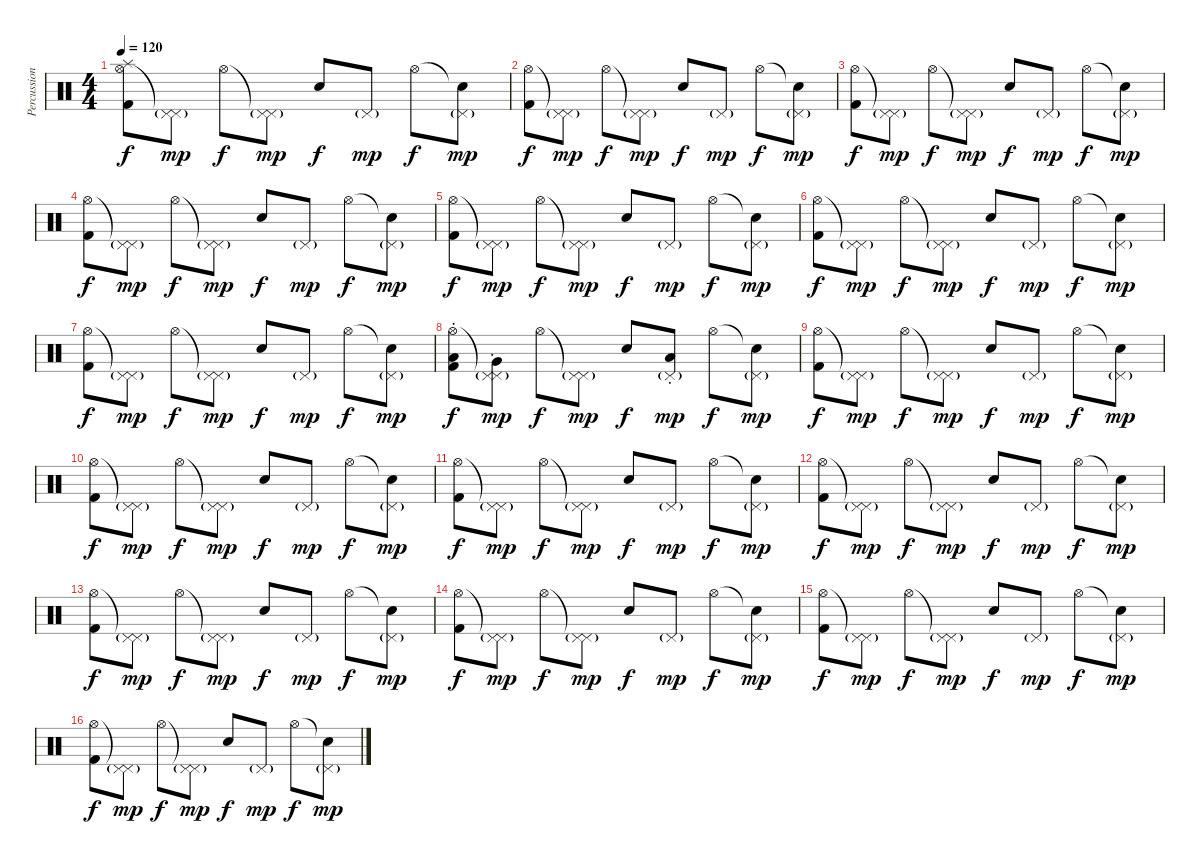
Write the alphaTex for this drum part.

\track ("Percussion" "Percussion") {instrument percussion}
\staff {score}
\articulation defaults
\ts (4 4)
\tempo 120
\clef neutral
\ks c
("Hi-Hat (open)" "Splash (hit)" "Kick (hit) 2").8{dy f} ("Pedal Hi-Hat (hit)"{t} "Pedal Hi-Hat (hit)"{g}).8{dy mp} "Hi-Hat (open)".8{dy f} ("Pedal Hi-Hat (hit)"{t} "Pedal Hi-Hat (hit)"{g}).8{dy mp} "Snare (hit) 2".8{dy f} "Pedal Hi-Hat (hit)"{g}.8{dy mp} "Hi-Hat (open)".8{dy f} ("Snare (hit)"{t} "Pedal Hi-Hat (hit)"{g}).8{dy mp} |
("Hi-Hat (open)" "Kick (hit) 2").8{dy f} ("Pedal Hi-Hat (hit)"{t} "Pedal Hi-Hat (hit)"{g}).8{dy mp} "Hi-Hat (open)".8{dy f} ("Pedal Hi-Hat (hit)"{t} "Pedal Hi-Hat (hit)"{g}).8{dy mp} "Snare (hit) 2".8{dy f} "Pedal Hi-Hat (hit)"{g}.8{dy mp} "Hi-Hat (open)".8{dy f} ("Snare (hit)"{t} "Pedal Hi-Hat (hit)"{g}).8{dy mp} |
("Hi-Hat (open)" "Kick (hit) 2").8{dy f} ("Pedal Hi-Hat (hit)"{t} "Pedal Hi-Hat (hit)"{g}).8{dy mp} "Hi-Hat (open)".8{dy f} ("Pedal Hi-Hat (hit)"{t} "Pedal Hi-Hat (hit)"{g}).8{dy mp} "Snare (hit) 2".8{dy f} "Pedal Hi-Hat (hit)"{g}.8{dy mp} "Hi-Hat (open)".8{dy f} ("Snare (hit)"{t} "Pedal Hi-Hat (hit)"{g}).8{dy mp} |
("Hi-Hat (open)" "Kick (hit) 2").8{dy f} ("Pedal Hi-Hat (hit)"{t} "Pedal Hi-Hat (hit)"{g}).8{dy mp} "Hi-Hat (open)".8{dy f} ("Pedal Hi-Hat (hit)"{t} "Pedal Hi-Hat (hit)"{g}).8{dy mp} "Snare (hit) 2".8{dy f} "Pedal Hi-Hat (hit)"{g}.8{dy mp} "Hi-Hat (open)".8{dy f} ("Snare (hit)"{t} "Pedal Hi-Hat (hit)"{g}).8{dy mp} |
("Hi-Hat (open)" "Kick (hit) 2").8{dy f} ("Pedal Hi-Hat (hit)"{t} "Pedal Hi-Hat (hit)"{g}).8{dy mp} "Hi-Hat (open)".8{dy f} ("Pedal Hi-Hat (hit)"{t} "Pedal Hi-Hat (hit)"{g}).8{dy mp} "Snare (hit) 2".8{dy f} "Pedal Hi-Hat (hit)"{g}.8{dy mp} "Hi-Hat (open)".8{dy f} ("Snare (hit)"{t} "Pedal Hi-Hat (hit)"{g}).8{dy mp} |
("Hi-Hat (open)" "Kick (hit) 2").8{dy f} ("Pedal Hi-Hat (hit)"{t} "Pedal Hi-Hat (hit)"{g}).8{dy mp} "Hi-Hat (open)".8{dy f} ("Pedal Hi-Hat (hit)"{t} "Pedal Hi-Hat (hit)"{g}).8{dy mp} "Snare (hit) 2".8{dy f} "Pedal Hi-Hat (hit)"{g}.8{dy mp} "Hi-Hat (open)".8{dy f} ("Snare (hit)"{t} "Pedal Hi-Hat (hit)"{g}).8{dy mp} |
("Hi-Hat (open)" "Kick (hit) 2").8{dy f} ("Pedal Hi-Hat (hit)"{t} "Pedal Hi-Hat (hit)"{g}).8{dy mp} "Hi-Hat (open)".8{dy f} ("Pedal Hi-Hat (hit)"{t} "Pedal Hi-Hat (hit)"{g}).8{dy mp} "Snare (hit) 2".8{dy f} "Pedal Hi-Hat (hit)"{g}.8{dy mp} "Hi-Hat (open)".8{dy f} ("Snare (hit)"{t} "Pedal Hi-Hat (hit)"{g}).8{dy mp} |
("Hi-Hat (open)" "Low Tom (hit)"{st} "Kick (hit) 2").8{dy f} ("Pedal Hi-Hat (hit)"{t} "Pedal Hi-Hat (hit)"{g} "Very Low Tom (hit)"{st}).8{dy mp} "Hi-Hat (open)".8{dy f} ("Pedal Hi-Hat (hit)"{t} "Pedal Hi-Hat (hit)"{g}).8{dy mp} "Snare (hit) 2".8{dy f} ("Pedal Hi-Hat (hit)"{g} "Low Floor Tom (hit)"{st}).8{dy mp} "Hi-Hat (open)".8{dy f} ("Snare (hit)"{t} "Pedal Hi-Hat (hit)"{g}).8{dy mp} |
("Hi-Hat (open)" "Kick (hit) 2").8{dy f} ("Pedal Hi-Hat (hit)"{t} "Pedal Hi-Hat (hit)"{g}).8{dy mp} "Hi-Hat (open)".8{dy f} ("Pedal Hi-Hat (hit)"{t} "Pedal Hi-Hat (hit)"{g}).8{dy mp} "Snare (hit) 2".8{dy f} "Pedal Hi-Hat (hit)"{g}.8{dy mp} "Hi-Hat (open)".8{dy f} ("Snare (hit)"{t} "Pedal Hi-Hat (hit)"{g}).8{dy mp} |
("Hi-Hat (open)" "Kick (hit) 2").8{dy f} ("Pedal Hi-Hat (hit)"{t} "Pedal Hi-Hat (hit)"{g}).8{dy mp} "Hi-Hat (open)".8{dy f} ("Pedal Hi-Hat (hit)"{t} "Pedal Hi-Hat (hit)"{g}).8{dy mp} "Snare (hit) 2".8{dy f} "Pedal Hi-Hat (hit)"{g}.8{dy mp} "Hi-Hat (open)".8{dy f} ("Snare (hit)"{t} "Pedal Hi-Hat (hit)"{g}).8{dy mp} |
("Hi-Hat (open)" "Kick (hit) 2").8{dy f} ("Pedal Hi-Hat (hit)"{t} "Pedal Hi-Hat (hit)"{g}).8{dy mp} "Hi-Hat (open)".8{dy f} ("Pedal Hi-Hat (hit)"{t} "Pedal Hi-Hat (hit)"{g}).8{dy mp} "Snare (hit) 2".8{dy f} "Pedal Hi-Hat (hit)"{g}.8{dy mp} "Hi-Hat (open)".8{dy f} ("Snare (hit)"{t} "Pedal Hi-Hat (hit)"{g}).8{dy mp} |
("Hi-Hat (open)" "Kick (hit) 2").8{dy f} ("Pedal Hi-Hat (hit)"{t} "Pedal Hi-Hat (hit)"{g}).8{dy mp} "Hi-Hat (open)".8{dy f} ("Pedal Hi-Hat (hit)"{t} "Pedal Hi-Hat (hit)"{g}).8{dy mp} "Snare (hit) 2".8{dy f} "Pedal Hi-Hat (hit)"{g}.8{dy mp} "Hi-Hat (open)".8{dy f} ("Snare (hit)"{t} "Pedal Hi-Hat (hit)"{g}).8{dy mp} |
("Hi-Hat (open)" "Kick (hit) 2").8{dy f} ("Pedal Hi-Hat (hit)"{t} "Pedal Hi-Hat (hit)"{g}).8{dy mp} "Hi-Hat (open)".8{dy f} ("Pedal Hi-Hat (hit)"{t} "Pedal Hi-Hat (hit)"{g}).8{dy mp} "Snare (hit) 2".8{dy f} "Pedal Hi-Hat (hit)"{g}.8{dy mp} "Hi-Hat (open)".8{dy f} ("Snare (hit)"{t} "Pedal Hi-Hat (hit)"{g}).8{dy mp} |
("Hi-Hat (open)" "Kick (hit) 2").8{dy f} ("Pedal Hi-Hat (hit)"{t} "Pedal Hi-Hat (hit)"{g}).8{dy mp} "Hi-Hat (open)".8{dy f} ("Pedal Hi-Hat (hit)"{t} "Pedal Hi-Hat (hit)"{g}).8{dy mp} "Snare (hit) 2".8{dy f} "Pedal Hi-Hat (hit)"{g}.8{dy mp} "Hi-Hat (open)".8{dy f} ("Snare (hit)"{t} "Pedal Hi-Hat (hit)"{g}).8{dy mp} |
("Hi-Hat (open)" "Kick (hit) 2").8{dy f} ("Pedal Hi-Hat (hit)"{t} "Pedal Hi-Hat (hit)"{g}).8{dy mp} "Hi-Hat (open)".8{dy f} ("Pedal Hi-Hat (hit)"{t} "Pedal Hi-Hat (hit)"{g}).8{dy mp} "Snare (hit) 2".8{dy f} "Pedal Hi-Hat (hit)"{g}.8{dy mp} "Hi-Hat (open)".8{dy f} ("Snare (hit)"{t} "Pedal Hi-Hat (hit)"{g}).8{dy mp} |
("Hi-Hat (open)" "Kick (hit) 2").8{dy f} ("Pedal Hi-Hat (hit)"{t} "Pedal Hi-Hat (hit)"{g}).8{dy mp} "Hi-Hat (open)".8{dy f} ("Pedal Hi-Hat (hit)"{t} "Pedal Hi-Hat (hit)"{g}).8{dy mp} "Snare (hit) 2".8{dy f} "Pedal Hi-Hat (hit)"{g}.8{dy mp} "Hi-Hat (open)".8{dy f} ("Snare (hit)"{t} "Pedal Hi-Hat (hit)"{g}).8{dy mp}
